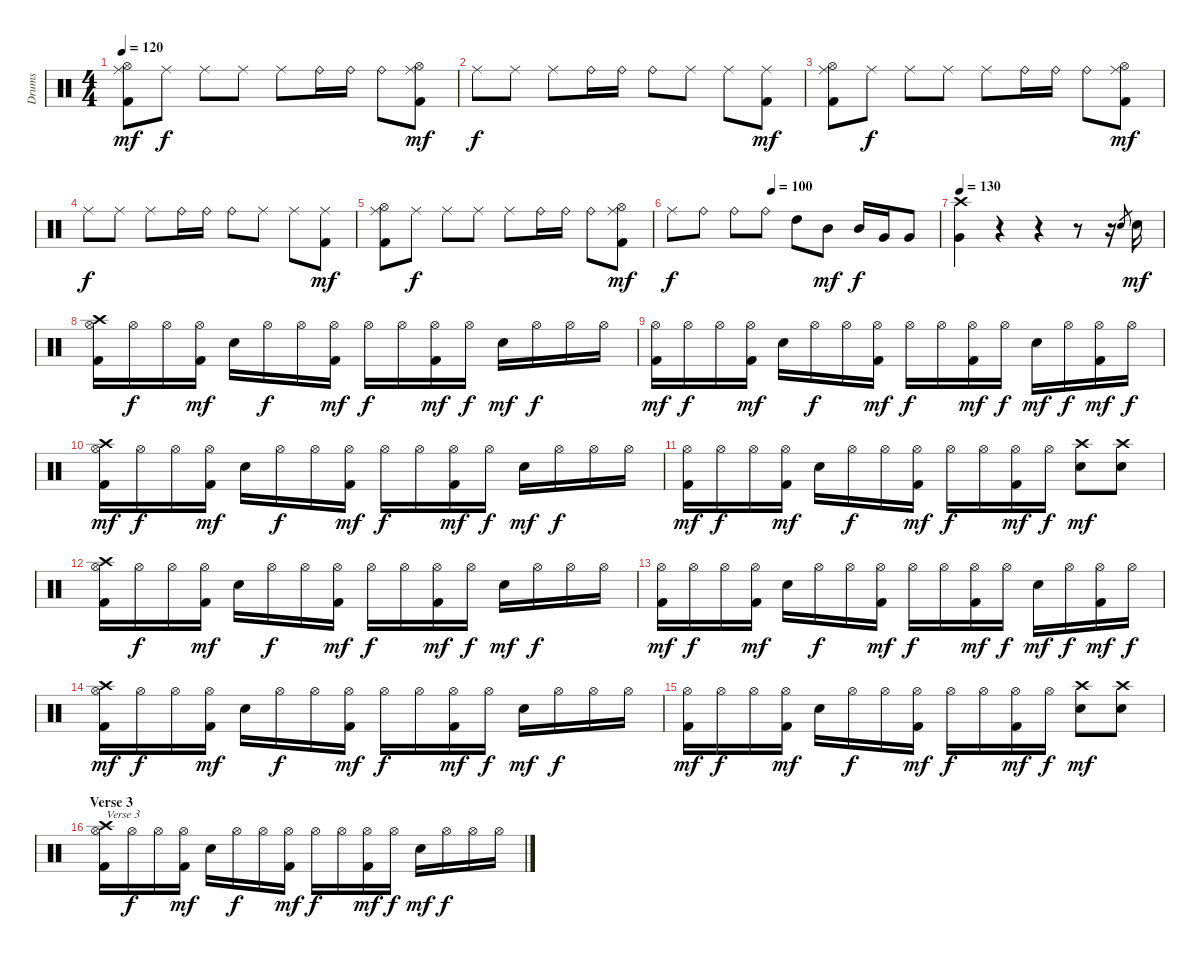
\track ("Drums" "Drums") {instrument percussion}
\staff {score}
\articulation defaults
\ts (4 4)
\tempo 120
\clef neutral
\ks c
("Ride (middle)" "Hi-Hat (open)" "Kick (hit) 2").8{dy mf} "Ride (middle)".8{dy f} "Ride (middle)".8 "Ride (middle)".8 "Ride (middle)".8 "Ride (bell)".16 "Ride (bell)".16 "Ride (bell)".8 ("Ride (middle)" "Hi-Hat (open)" "Kick (hit) 2").8{dy mf} |
"Ride (middle)".8{dy f} "Ride (middle)".8 "Ride (middle)".8 "Ride (bell)".16 "Ride (bell)".16 "Ride (bell)".8 "Ride (middle)".8 "Ride (middle)".8 ("Ride (middle)" "Kick (hit) 2").8{dy mf} |
("Ride (middle)" "Hi-Hat (open)" "Kick (hit) 2").8 "Ride (middle)".8{dy f} "Ride (middle)".8 "Ride (middle)".8 "Ride (middle)".8 "Ride (bell)".16 "Ride (bell)".16 "Ride (bell)".8 ("Ride (middle)" "Hi-Hat (open)" "Kick (hit) 2").8{dy mf} |
"Ride (middle)".8{dy f} "Ride (middle)".8 "Ride (middle)".8 "Ride (bell)".16 "Ride (bell)".16 "Ride (bell)".8 "Ride (middle)".8 "Ride (middle)".8 ("Ride (middle)" "Kick (hit) 2").8{dy mf} |
("Ride (middle)" "Hi-Hat (open)" "Kick (hit) 2").8 "Ride (middle)".8{dy f} "Ride (middle)".8 "Ride (middle)".8 "Ride (middle)".8 "Ride (bell)".16 "Ride (bell)".16 "Ride (bell)".8 ("Ride (middle)" "Hi-Hat (open)" "Kick (hit) 2").8{dy mf} |
\tempo (100 0.375)
"Ride (middle)".8{dy f} "Ride (bell)".8 "Ride (bell)".8 "Ride (bell)".8 "High Tom (hit)".8 "Mid Tom (hit)".8{dy mf} "Mid Tom (hit)".16{dy f} "Very Low Tom (hit)".16 "Very Low Tom (hit)".8 |
\tempo 130
("Crash high (hit)" "Very Low Tom (hit)").4 r.4 r.4 r.8 r.16 "Electric Snare (hit)".8{gr} "Electric Snare (hit)".16{dy mf} |
("Crash high (hit)" "Hi-Hat (open)" "Kick (hit) 2").16 "Hi-Hat (open)".16{dy f} "Hi-Hat (open)".16 ("Hi-Hat (open)" "Kick (hit) 2").16{dy mf} "Electric Snare (hit)".16 "Hi-Hat (open)".16{dy f} "Hi-Hat (open)".16 ("Hi-Hat (open)" "Kick (hit) 2").16{dy mf} "Hi-Hat (open)".16{dy f} "Hi-Hat (open)".16 ("Hi-Hat (open)" "Kick (hit) 2").16{dy mf} "Hi-Hat (open)".16{dy f} "Electric Snare (hit)".16{dy mf} "Hi-Hat (open)".16{dy f} "Hi-Hat (open)".16 "Hi-Hat (open)".16 |
("Hi-Hat (open)" "Kick (hit) 2").16{dy mf} "Hi-Hat (open)".16{dy f} "Hi-Hat (open)".16 ("Hi-Hat (open)" "Kick (hit) 2").16{dy mf} "Electric Snare (hit)".16 "Hi-Hat (open)".16{dy f} "Hi-Hat (open)".16 ("Hi-Hat (open)" "Kick (hit) 2").16{dy mf} "Hi-Hat (open)".16{dy f} "Hi-Hat (open)".16 ("Hi-Hat (open)" "Kick (hit) 2").16{dy mf} "Hi-Hat (open)".16{dy f} "Electric Snare (hit)".16{dy mf} "Hi-Hat (open)".16{dy f} ("Hi-Hat (open)" "Kick (hit) 2").16{dy mf} "Hi-Hat (open)".16{dy f} |
("Crash high (hit)" "Hi-Hat (open)" "Kick (hit) 2").16{dy mf} "Hi-Hat (open)".16{dy f} "Hi-Hat (open)".16 ("Hi-Hat (open)" "Kick (hit) 2").16{dy mf} "Electric Snare (hit)".16 "Hi-Hat (open)".16{dy f} "Hi-Hat (open)".16 ("Hi-Hat (open)" "Kick (hit) 2").16{dy mf} "Hi-Hat (open)".16{dy f} "Hi-Hat (open)".16 ("Hi-Hat (open)" "Kick (hit) 2").16{dy mf} "Hi-Hat (open)".16{dy f} "Electric Snare (hit)".16{dy mf} "Hi-Hat (open)".16{dy f} "Hi-Hat (open)".16 "Hi-Hat (open)".16 |
("Hi-Hat (open)" "Kick (hit) 2").16{dy mf} "Hi-Hat (open)".16{dy f} "Hi-Hat (open)".16 ("Hi-Hat (open)" "Kick (hit) 2").16{dy mf} "Electric Snare (hit)".16 "Hi-Hat (open)".16{dy f} "Hi-Hat (open)".16 ("Hi-Hat (open)" "Kick (hit) 2").16{dy mf} "Hi-Hat (open)".16{dy f} "Hi-Hat (open)".16 ("Hi-Hat (open)" "Kick (hit) 2").16{dy mf} "Hi-Hat (open)".16{dy f} ("Crash high (hit)" "Electric Snare (hit)").8{dy mf} ("Crash high (hit)" "Electric Snare (hit)").8 |
("Crash high (hit)" "Hi-Hat (open)" "Kick (hit) 2").16 "Hi-Hat (open)".16{dy f} "Hi-Hat (open)".16 ("Hi-Hat (open)" "Kick (hit) 2").16{dy mf} "Electric Snare (hit)".16 "Hi-Hat (open)".16{dy f} "Hi-Hat (open)".16 ("Hi-Hat (open)" "Kick (hit) 2").16{dy mf} "Hi-Hat (open)".16{dy f} "Hi-Hat (open)".16 ("Hi-Hat (open)" "Kick (hit) 2").16{dy mf} "Hi-Hat (open)".16{dy f} "Electric Snare (hit)".16{dy mf} "Hi-Hat (open)".16{dy f} "Hi-Hat (open)".16 "Hi-Hat (open)".16 |
("Hi-Hat (open)" "Kick (hit) 2").16{dy mf} "Hi-Hat (open)".16{dy f} "Hi-Hat (open)".16 ("Hi-Hat (open)" "Kick (hit) 2").16{dy mf} "Electric Snare (hit)".16 "Hi-Hat (open)".16{dy f} "Hi-Hat (open)".16 ("Hi-Hat (open)" "Kick (hit) 2").16{dy mf} "Hi-Hat (open)".16{dy f} "Hi-Hat (open)".16 ("Hi-Hat (open)" "Kick (hit) 2").16{dy mf} "Hi-Hat (open)".16{dy f} "Electric Snare (hit)".16{dy mf} "Hi-Hat (open)".16{dy f} ("Hi-Hat (open)" "Kick (hit) 2").16{dy mf} "Hi-Hat (open)".16{dy f} |
("Crash high (hit)" "Hi-Hat (open)" "Kick (hit) 2").16{dy mf} "Hi-Hat (open)".16{dy f} "Hi-Hat (open)".16 ("Hi-Hat (open)" "Kick (hit) 2").16{dy mf} "Electric Snare (hit)".16 "Hi-Hat (open)".16{dy f} "Hi-Hat (open)".16 ("Hi-Hat (open)" "Kick (hit) 2").16{dy mf} "Hi-Hat (open)".16{dy f} "Hi-Hat (open)".16 ("Hi-Hat (open)" "Kick (hit) 2").16{dy mf} "Hi-Hat (open)".16{dy f} "Electric Snare (hit)".16{dy mf} "Hi-Hat (open)".16{dy f} "Hi-Hat (open)".16 "Hi-Hat (open)".16 |
("Hi-Hat (open)" "Kick (hit) 2").16{dy mf} "Hi-Hat (open)".16{dy f} "Hi-Hat (open)".16 ("Hi-Hat (open)" "Kick (hit) 2").16{dy mf} "Electric Snare (hit)".16 "Hi-Hat (open)".16{dy f} "Hi-Hat (open)".16 ("Hi-Hat (open)" "Kick (hit) 2").16{dy mf} "Hi-Hat (open)".16{dy f} "Hi-Hat (open)".16 ("Hi-Hat (open)" "Kick (hit) 2").16{dy mf} "Hi-Hat (open)".16{dy f} ("Crash high (hit)" "Electric Snare (hit)").8{dy mf} ("Crash high (hit)" "Electric Snare (hit)").8 |
\section ("" "Verse 3")
("Crash high (hit)" "Hi-Hat (open)" "Kick (hit) 2").16{txt "Verse 3"} "Hi-Hat (open)".16{dy f} "Hi-Hat (open)".16 ("Hi-Hat (open)" "Kick (hit) 2").16{dy mf} "Electric Snare (hit)".16 "Hi-Hat (open)".16{dy f} "Hi-Hat (open)".16 ("Hi-Hat (open)" "Kick (hit) 2").16{dy mf} "Hi-Hat (open)".16{dy f} "Hi-Hat (open)".16 ("Hi-Hat (open)" "Kick (hit) 2").16{dy mf} "Hi-Hat (open)".16{dy f} "Electric Snare (hit)".16{dy mf} "Hi-Hat (open)".16{dy f} "Hi-Hat (open)".16 "Hi-Hat (open)".16
